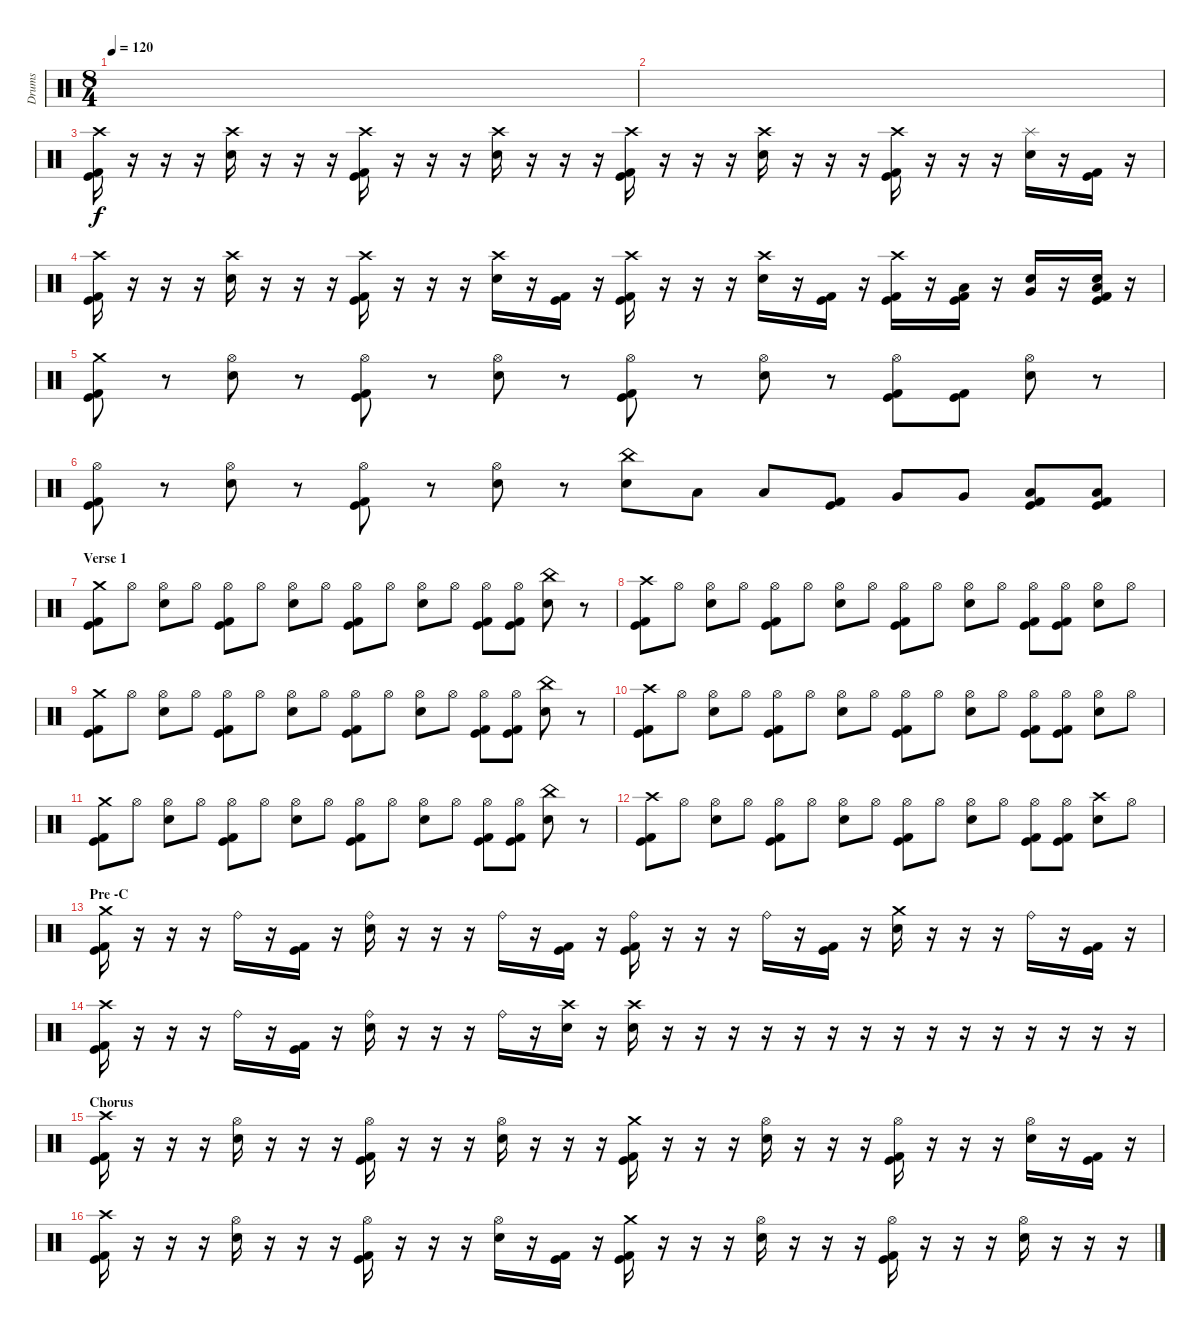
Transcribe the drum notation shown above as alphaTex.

\track ("Drums" "Drums") {instrument percussion}
\staff {score}
\articulation defaults
\ts (8 4)
\tempo 120
\clef neutral
\ks c
|
|
("Crash high (hit)" "Kick (hit)" "Kick (hit) 2").16 r.16 r.16 r.16 ("Crash high (hit)" "Electric Snare (hit)").16 r.16 r.16 r.16 ("Crash high (hit)" "Kick (hit)" "Kick (hit) 2").16 r.16 r.16 r.16 ("Crash high (hit)" "Electric Snare (hit)").16 r.16 r.16 r.16 ("Crash high (hit)" "Kick (hit) 2" "Kick (hit)").16 r.16 r.16 r.16 ("Crash high (hit)" "Electric Snare (hit)").16 r.16 r.16 r.16 ("Crash high (hit)" "Kick (hit) 2" "Kick (hit)").16 r.16 r.16 r.16 ("Splash (hit)" "Electric Snare (hit)").16 r.16 ("Kick (hit) 2" "Kick (hit)").16 r.16 |
("Crash high (hit)" "Kick (hit)" "Kick (hit) 2").16 r.16 r.16 r.16 ("Crash high (hit)" "Electric Snare (hit)").16 r.16 r.16 r.16 ("Crash high (hit)" "Kick (hit)" "Kick (hit) 2").16 r.16 r.16 r.16 ("Crash high (hit)" "Electric Snare (hit)").16 r.16 ("Kick (hit) 2" "Kick (hit)").16 r.16 ("Crash high (hit)" "Kick (hit) 2" "Kick (hit)").16 r.16 r.16 r.16 ("Crash high (hit)" "Electric Snare (hit)").16 r.16 ("Kick (hit) 2" "Kick (hit)").16 r.16 ("Crash high (hit)" "Kick (hit) 2" "Kick (hit)").16 r.16 ("Low Tom (hit)" "Kick (hit) 2" "Kick (hit)").16 r.16 ("Very Low Tom (hit)" "Electric Snare (hit)").16 r.16 ("Electric Snare (hit)" "Low Floor Tom (hit)" "Kick (hit) 2" "Kick (hit)").16 r.16 |
("Crash medium (hit)" "Kick (hit) 2" "Kick (hit)").8 r.8 ("Hi-Hat (open)" "Electric Snare (hit)").8 r.8 ("Hi-Hat (open)" "Kick (hit) 2" "Kick (hit)").8 r.8 ("Hi-Hat (open)" "Electric Snare (hit)").8 r.8 ("Hi-Hat (open)" "Kick (hit) 2" "Kick (hit)").8 r.8 ("Hi-Hat (open)" "Electric Snare (hit)").8 r.8 ("Hi-Hat (open)" "Kick (hit) 2" "Kick (hit)").8 ("Kick (hit) 2" "Kick (hit)").8 ("Hi-Hat (open)" "Electric Snare (hit)").8 r.8 |
("Hi-Hat (open)" "Kick (hit) 2" "Kick (hit)").8 r.8 ("Hi-Hat (open)" "Electric Snare (hit)").8 r.8 ("Hi-Hat (open)" "Kick (hit) 2" "Kick (hit)").8 r.8 ("Hi-Hat (open)" "Electric Snare (hit)").8 r.8 ("China (hit)" "Electric Snare (hit)").8 "Low Tom (hit)".8 "Low Tom (hit)".8 ("Kick (hit) 2" "Kick (hit)").8 "Very Low Tom (hit)".8 "Very Low Tom (hit)".8 ("Low Floor Tom (hit)" "Kick (hit) 2" "Kick (hit)").8 ("Low Floor Tom (hit)" "Kick (hit) 2" "Kick (hit)").8 |
\section ("" "Verse 1")
("Crash medium (hit)" "Kick (hit) 2" "Kick (hit)").8 "Hi-Hat (open)".8 ("Hi-Hat (open)" "Electric Snare (hit)").8 "Hi-Hat (open)".8 ("Hi-Hat (open)" "Kick (hit) 2" "Kick (hit)").8 "Hi-Hat (open)".8 ("Hi-Hat (open)" "Electric Snare (hit)").8 "Hi-Hat (open)".8 ("Hi-Hat (open)" "Kick (hit) 2" "Kick (hit)").8 "Hi-Hat (open)".8 ("Hi-Hat (open)" "Electric Snare (hit)").8 "Hi-Hat (open)".8 ("Hi-Hat (open)" "Kick (hit) 2" "Kick (hit)").8 ("Hi-Hat (open)" "Kick (hit) 2" "Kick (hit)").8 ("China (hit)" "Electric Snare (hit)").8 r.8 |
("Crash high (hit)" "Kick (hit) 2" "Kick (hit)").8 "Hi-Hat (open)".8 ("Hi-Hat (open)" "Electric Snare (hit)").8 "Hi-Hat (open)".8 ("Hi-Hat (open)" "Kick (hit) 2" "Kick (hit)").8 "Hi-Hat (open)".8 ("Hi-Hat (open)" "Electric Snare (hit)").8 "Hi-Hat (open)".8 ("Hi-Hat (open)" "Kick (hit) 2" "Kick (hit)").8 "Hi-Hat (open)".8 ("Hi-Hat (open)" "Electric Snare (hit)").8 "Hi-Hat (open)".8 ("Hi-Hat (open)" "Kick (hit) 2" "Kick (hit)").8 ("Hi-Hat (open)" "Kick (hit) 2" "Kick (hit)").8 ("Hi-Hat (open)" "Electric Snare (hit)").8 "Hi-Hat (open)".8 |
("Crash medium (hit)" "Kick (hit) 2" "Kick (hit)").8 "Hi-Hat (open)".8 ("Hi-Hat (open)" "Electric Snare (hit)").8 "Hi-Hat (open)".8 ("Hi-Hat (open)" "Kick (hit) 2" "Kick (hit)").8 "Hi-Hat (open)".8 ("Hi-Hat (open)" "Electric Snare (hit)").8 "Hi-Hat (open)".8 ("Hi-Hat (open)" "Kick (hit) 2" "Kick (hit)").8 "Hi-Hat (open)".8 ("Hi-Hat (open)" "Electric Snare (hit)").8 "Hi-Hat (open)".8 ("Hi-Hat (open)" "Kick (hit) 2" "Kick (hit)").8 ("Hi-Hat (open)" "Kick (hit) 2" "Kick (hit)").8 ("China (hit)" "Electric Snare (hit)").8 r.8 |
("Crash high (hit)" "Kick (hit) 2" "Kick (hit)").8 "Hi-Hat (open)".8 ("Hi-Hat (open)" "Electric Snare (hit)").8 "Hi-Hat (open)".8 ("Hi-Hat (open)" "Kick (hit) 2" "Kick (hit)").8 "Hi-Hat (open)".8 ("Hi-Hat (open)" "Electric Snare (hit)").8 "Hi-Hat (open)".8 ("Hi-Hat (open)" "Kick (hit) 2" "Kick (hit)").8 "Hi-Hat (open)".8 ("Hi-Hat (open)" "Electric Snare (hit)").8 "Hi-Hat (open)".8 ("Hi-Hat (open)" "Kick (hit) 2" "Kick (hit)").8 ("Hi-Hat (open)" "Kick (hit) 2" "Kick (hit)").8 ("Hi-Hat (open)" "Electric Snare (hit)").8 "Hi-Hat (open)".8 |
("Crash medium (hit)" "Kick (hit) 2" "Kick (hit)").8 "Hi-Hat (open)".8 ("Hi-Hat (open)" "Electric Snare (hit)").8 "Hi-Hat (open)".8 ("Hi-Hat (open)" "Kick (hit) 2" "Kick (hit)").8 "Hi-Hat (open)".8 ("Hi-Hat (open)" "Electric Snare (hit)").8 "Hi-Hat (open)".8 ("Hi-Hat (open)" "Kick (hit) 2" "Kick (hit)").8 "Hi-Hat (open)".8 ("Hi-Hat (open)" "Electric Snare (hit)").8 "Hi-Hat (open)".8 ("Hi-Hat (open)" "Kick (hit) 2" "Kick (hit)").8 ("Hi-Hat (open)" "Kick (hit) 2" "Kick (hit)").8 ("China (hit)" "Electric Snare (hit)").8 r.8 |
("Crash high (hit)" "Kick (hit) 2" "Kick (hit)").8 "Hi-Hat (open)".8 ("Hi-Hat (open)" "Electric Snare (hit)").8 "Hi-Hat (open)".8 ("Hi-Hat (open)" "Kick (hit) 2" "Kick (hit)").8 "Hi-Hat (open)".8 ("Hi-Hat (open)" "Electric Snare (hit)").8 "Hi-Hat (open)".8 ("Hi-Hat (open)" "Kick (hit) 2" "Kick (hit)").8 "Hi-Hat (open)".8 ("Hi-Hat (open)" "Electric Snare (hit)").8 "Hi-Hat (open)".8 ("Hi-Hat (open)" "Kick (hit) 2" "Kick (hit)").8 ("Hi-Hat (open)" "Kick (hit) 2" "Kick (hit)").8 ("Crash high (hit)" "Electric Snare (hit)").8 "Hi-Hat (open)".8 |
\section ("" "Pre -C")
("Crash medium (hit)" "Kick (hit)" "Kick (hit) 2").16 r.16 r.16 r.16 "Ride (bell)".16 r.16 ("Kick (hit)" "Kick (hit) 2").16 r.16 ("Ride (bell)" "Electric Snare (hit)").16 r.16 r.16 r.16 "Ride (bell)".16 r.16 ("Kick (hit) 2" "Kick (hit)").16 r.16 ("Ride (bell)" "Kick (hit)" "Kick (hit) 2").16 r.16 r.16 r.16 "Ride (bell)".16 r.16 ("Kick (hit) 2" "Kick (hit)").16 r.16 ("Crash medium (hit)" "Electric Snare (hit)").16 r.16 r.16 r.16 "Ride (bell)".16 r.16 ("Kick (hit) 2" "Kick (hit)").16 r.16 |
("Crash high (hit)" "Kick (hit)" "Kick (hit) 2").16 r.16 r.16 r.16 "Ride (bell)".16 r.16 ("Kick (hit)" "Kick (hit) 2").16 r.16 ("Ride (bell)" "Electric Snare (hit)").16 r.16 r.16 r.16 "Ride (bell)".16 r.16 ("Crash high (hit)" "Electric Snare (hit)").16 r.16 ("Crash high (hit)" "Electric Snare (hit)").16 r.16 r.16 r.16 r.16 r.16 r.16 r.16 r.16 r.16 r.16 r.16 r.16 r.16 r.16 r.16 |
\section ("" "Chorus")
("Crash high (hit)" "Kick (hit) 2" "Kick (hit)").16 r.16 r.16 r.16 ("Hi-Hat (open)" "Electric Snare (hit)").16 r.16 r.16 r.16 ("Hi-Hat (open)" "Kick (hit) 2" "Kick (hit)").16 r.16 r.16 r.16 ("Hi-Hat (open)" "Electric Snare (hit)").16 r.16 r.16 r.16 ("Crash medium (hit)" "Kick (hit) 2" "Kick (hit)").16 r.16 r.16 r.16 ("Hi-Hat (open)" "Electric Snare (hit)").16 r.16 r.16 r.16 ("Hi-Hat (open)" "Kick (hit) 2" "Kick (hit)").16 r.16 r.16 r.16 ("Hi-Hat (open)" "Electric Snare (hit)").16 r.16 ("Kick (hit) 2" "Kick (hit)").16 r.16 |
("Crash high (hit)" "Kick (hit) 2" "Kick (hit)").16 r.16 r.16 r.16 ("Hi-Hat (open)" "Electric Snare (hit)").16 r.16 r.16 r.16 ("Hi-Hat (open)" "Kick (hit) 2" "Kick (hit)").16 r.16 r.16 r.16 ("Hi-Hat (open)" "Electric Snare (hit)").16 r.16 ("Kick (hit) 2" "Kick (hit)").16 r.16 ("Crash medium (hit)" "Kick (hit) 2" "Kick (hit)").16 r.16 r.16 r.16 ("Hi-Hat (open)" "Electric Snare (hit)").16 r.16 r.16 r.16 ("Hi-Hat (open)" "Kick (hit) 2" "Kick (hit)").16 r.16 r.16 r.16 ("Hi-Hat (open)" "Electric Snare (hit)").16 r.16 r.16 r.16
